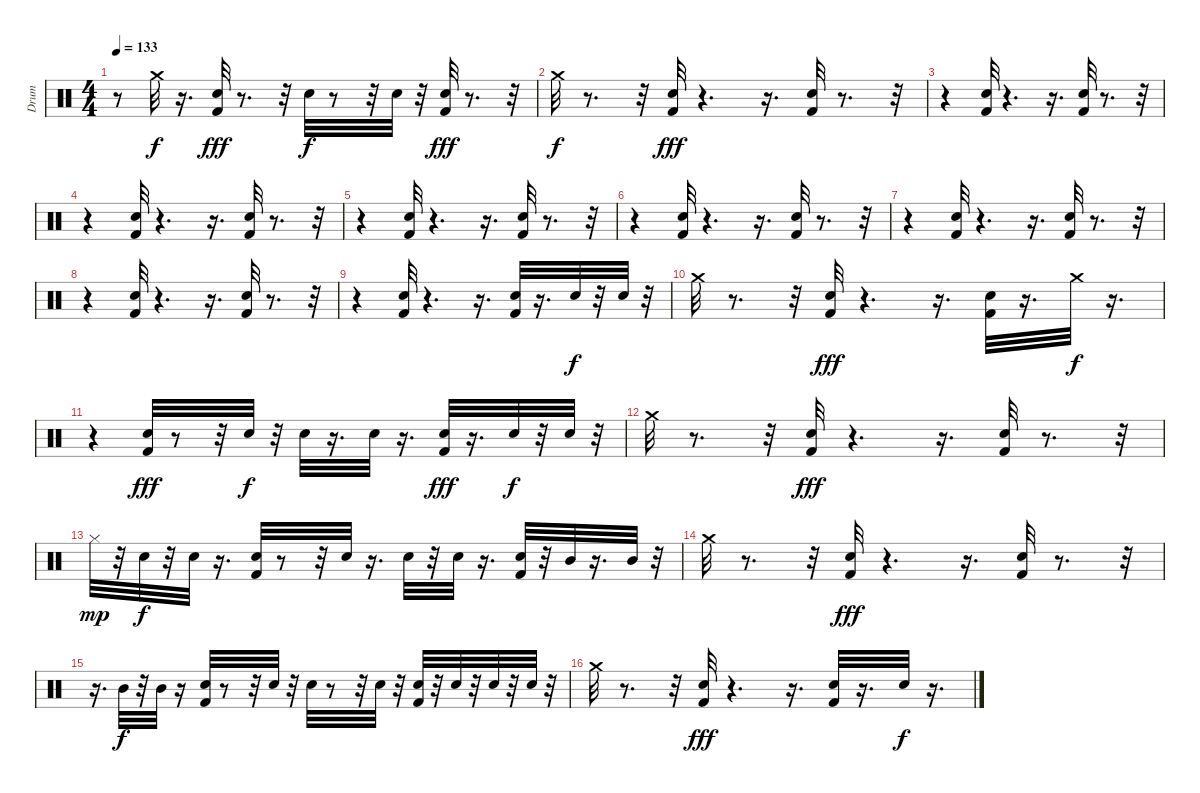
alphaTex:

\track ("Drum" "Drum") {instrument percussion}
\staff {score}
\articulation defaults
\ts (4 4)
\tempo 133
\clef neutral
\ks c
r.8{dy fff} "Crash medium (hit)".32{dy f} r.16{d} ("Kick (hit) 2" "Electric Snare (hit)").32{dy fff} r.8{d} r.32 "Electric Snare (hit)".32{dy f} r.8 r.32 "Electric Snare (hit)".32 r.32 ("Kick (hit) 2" "Electric Snare (hit)").32{dy fff} r.8{d} r.32 |
"Crash medium (hit)".32{dy f} r.8{d} r.32 ("Electric Snare (hit)" "Kick (hit) 2").32{dy fff} r.4{d} r.16{d} ("Electric Snare (hit)" "Kick (hit) 2").32 r.8{d} r.32 |
r.4 ("Electric Snare (hit)" "Kick (hit) 2").32 r.4{d} r.16{d} ("Electric Snare (hit)" "Kick (hit) 2").32 r.8{d} r.32 |
r.4 ("Electric Snare (hit)" "Kick (hit) 2").32 r.4{d} r.16{d} ("Electric Snare (hit)" "Kick (hit) 2").32 r.8{d} r.32 |
r.4 ("Electric Snare (hit)" "Kick (hit) 2").32 r.4{d} r.16{d} ("Electric Snare (hit)" "Kick (hit) 2").32 r.8{d} r.32 |
r.4 ("Electric Snare (hit)" "Kick (hit) 2").32 r.4{d} r.16{d} ("Electric Snare (hit)" "Kick (hit) 2").32 r.8{d} r.32 |
r.4 ("Electric Snare (hit)" "Kick (hit) 2").32 r.4{d} r.16{d} ("Electric Snare (hit)" "Kick (hit) 2").32 r.8{d} r.32 |
r.4 ("Electric Snare (hit)" "Kick (hit) 2").32 r.4{d} r.16{d} ("Electric Snare (hit)" "Kick (hit) 2").32 r.8{d} r.32 |
r.4 ("Electric Snare (hit)" "Kick (hit) 2").32 r.4{d} r.16{d} ("Kick (hit) 2" "Electric Snare (hit)").32 r.16{d} "Electric Snare (hit)".32{dy f} r.32 "Electric Snare (hit)".32 r.32 |
"Crash medium (hit)".32 r.8{d} r.32 ("Electric Snare (hit)" "Kick (hit) 2").32{dy fff} r.4{d} r.16{d} ("Electric Snare (hit)" "Kick (hit) 2").32 r.16{d} "Crash medium (hit)".32{dy f} r.16{d} |
r.4 ("Kick (hit) 2" "Electric Snare (hit)").32{dy fff} r.8 r.32 "Electric Snare (hit)".32{dy f} r.32 "Electric Snare (hit)".32 r.16{d} "Electric Snare (hit)".32 r.16{d} ("Kick (hit) 2" "Electric Snare (hit)").32{dy fff} r.16{d} "Electric Snare (hit)".32{dy f} r.32 "Electric Snare (hit)".32 r.32 |
"Crash medium (hit)".32 r.8{d} r.32 ("Electric Snare (hit)" "Kick (hit) 2").32{dy fff} r.4{d} r.16{d} ("Electric Snare (hit)" "Kick (hit) 2").32 r.8{d} r.32 |
"Hi-Hat (closed)".32{dy mp} r.32 "Electric Snare (hit)".32{dy f} r.32 "Electric Snare (hit)".32 r.16{d} ("Electric Snare (hit)" "Kick (hit) 2").32 r.8 r.32 "Electric Snare (hit)".32 r.16{d} "Electric Snare (hit)".32 r.32 "Electric Snare (hit)".32 r.16{d} ("Electric Snare (hit)" "Kick (hit) 2").32 r.32 "Mid Tom (hit)".32 r.16{d} "Mid Tom (hit)".32 r.32 |
"Crash medium (hit)".32 r.8{d} r.32 ("Electric Snare (hit)" "Kick (hit) 2").32{dy fff} r.4{d} r.16{d} ("Electric Snare (hit)" "Kick (hit) 2").32 r.8{d} r.32 |
r.16{d} "Mid Tom (hit)".32{dy f} r.32 "Mid Tom (hit)".32 r.16 ("Kick (hit) 2" "Electric Snare (hit)").32 r.8 r.32 "Electric Snare (hit)".32 r.32 "Electric Snare (hit)".32 r.8 r.32 "Electric Snare (hit)".32 r.32 ("Kick (hit) 2" "Electric Snare (hit)").32 r.32 "Electric Snare (hit)".32 r.32 "Electric Snare (hit)".32 r.32 "Electric Snare (hit)".32 r.32 |
"Crash medium (hit)".32 r.8{d} r.32 ("Electric Snare (hit)" "Kick (hit) 2").32{dy fff} r.4{d} r.16{d} ("Electric Snare (hit)" "Kick (hit) 2").32 r.16{d} "Electric Snare (hit)".32{dy f} r.16{d}
